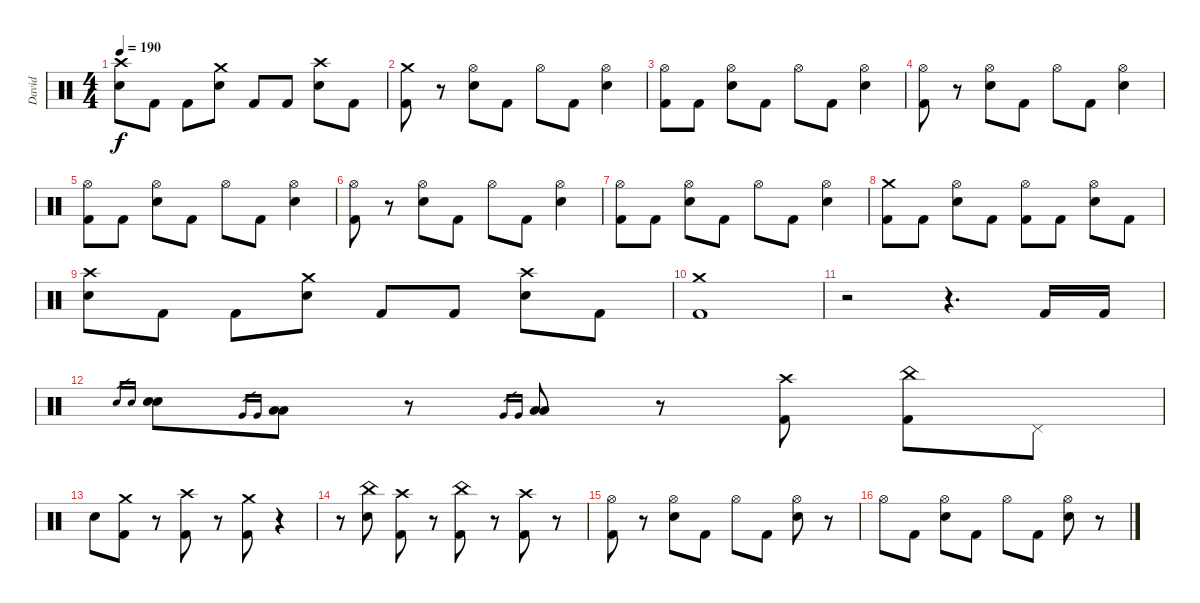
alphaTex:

\track ("David" "David") {instrument percussion}
\staff {score}
\articulation defaults
\ts (4 4)
\tempo 190
\clef neutral
\ks c
("Crash high (hit)" "Electric Snare (hit)").8{dy f} "Kick (hit) 2".8 "Kick (hit) 2".8 ("Crash medium (hit)" "Electric Snare (hit)").8 "Kick (hit) 2".8 "Kick (hit) 2".8 ("Crash high (hit)" "Electric Snare (hit)").8 "Kick (hit) 2".8 |
("Crash medium (hit)" "Kick (hit) 2").8 r.8 ("Hi-Hat (open)" "Electric Snare (hit)").8 "Kick (hit) 2".8 "Hi-Hat (open)".8 "Kick (hit) 2".8 ("Hi-Hat (open)" "Electric Snare (hit)").4 |
("Hi-Hat (open)" "Kick (hit) 2").8 "Kick (hit) 2".8 ("Hi-Hat (open)" "Electric Snare (hit)").8 "Kick (hit) 2".8 "Hi-Hat (open)".8 "Kick (hit) 2".8 ("Hi-Hat (open)" "Electric Snare (hit)").4 |
("Hi-Hat (open)" "Kick (hit) 2").8 r.8 ("Hi-Hat (open)" "Electric Snare (hit)").8 "Kick (hit) 2".8 "Hi-Hat (open)".8 "Kick (hit) 2".8 ("Hi-Hat (open)" "Electric Snare (hit)").4 |
("Hi-Hat (open)" "Kick (hit) 2").8 "Kick (hit) 2".8 ("Hi-Hat (open)" "Electric Snare (hit)").8 "Kick (hit) 2".8 "Hi-Hat (open)".8 "Kick (hit) 2".8 ("Hi-Hat (open)" "Electric Snare (hit)").4 |
("Hi-Hat (open)" "Kick (hit) 2").8 r.8 ("Hi-Hat (open)" "Electric Snare (hit)").8 "Kick (hit) 2".8 "Hi-Hat (open)".8 "Kick (hit) 2".8 ("Hi-Hat (open)" "Electric Snare (hit)").4 |
("Hi-Hat (open)" "Kick (hit) 2").8 "Kick (hit) 2".8 ("Hi-Hat (open)" "Electric Snare (hit)").8 "Kick (hit) 2".8 "Hi-Hat (open)".8 "Kick (hit) 2".8 ("Hi-Hat (open)" "Electric Snare (hit)").4 |
("Crash medium (hit)" "Kick (hit) 2").8 "Kick (hit) 2".8 ("Hi-Hat (open)" "Electric Snare (hit)").8 "Kick (hit) 2".8 ("Hi-Hat (open)" "Kick (hit) 2").8 "Kick (hit) 2".8 ("Hi-Hat (open)" "Electric Snare (hit)").8 "Kick (hit) 2".8 |
("Crash high (hit)" "Electric Snare (hit)").8 "Kick (hit) 2".8 "Kick (hit) 2".8 ("Crash medium (hit)" "Electric Snare (hit)").8 "Kick (hit) 2".8 "Kick (hit) 2".8 ("Crash high (hit)" "Electric Snare (hit)").8 "Kick (hit) 2".8 |
("Crash medium (hit)" "Kick (hit) 2").1 |
r.2 r.4{d} "Kick (hit) 2".16 "Kick (hit) 2".16 |
"Electric Snare (hit)".16{gr} "Electric Snare (hit)".16{gr} ("Electric Snare (hit)" "Electric Snare (hit)").8 "Very Low Tom (hit)".16{gr} "Very Low Tom (hit)".16{gr} ("Low Floor Tom (hit)" "Low Floor Tom (hit)").8 r.8 "Very Low Tom (hit)".16{gr} "Very Low Tom (hit)".16{gr} ("Low Floor Tom (hit)" "Low Floor Tom (hit)").8 r.8 ("Crash high (hit)" "Kick (hit) 2").8 ("China (hit)" "Kick (hit) 2").8 "Pedal Hi-Hat (hit)".8 |
"Electric Snare (hit)".8 ("Crash medium (hit)" "Kick (hit) 2").8 r.8 ("Crash high (hit)" "Kick (hit) 2").8 r.8 ("Crash medium (hit)" "Kick (hit) 2").8 r.4 |
r.8 ("China (hit)" "Electric Snare (hit)").8 ("Crash high (hit)" "Kick (hit) 2").8 r.8 ("China (hit)" "Kick (hit) 2").8 r.8 ("Crash high (hit)" "Kick (hit) 2").8 r.8 |
("Hi-Hat (open)" "Kick (hit) 2").8 r.8 ("Hi-Hat (open)" "Electric Snare (hit)").8 "Kick (hit) 2".8 "Hi-Hat (open)".8 "Kick (hit) 2".8 ("Hi-Hat (open)" "Electric Snare (hit)").8 r.8 |
"Hi-Hat (open)".8 "Kick (hit) 2".8 ("Hi-Hat (open)" "Electric Snare (hit)").8 "Kick (hit) 2".8 "Hi-Hat (open)".8 "Kick (hit) 2".8 ("Hi-Hat (open)" "Electric Snare (hit)").8 r.8
